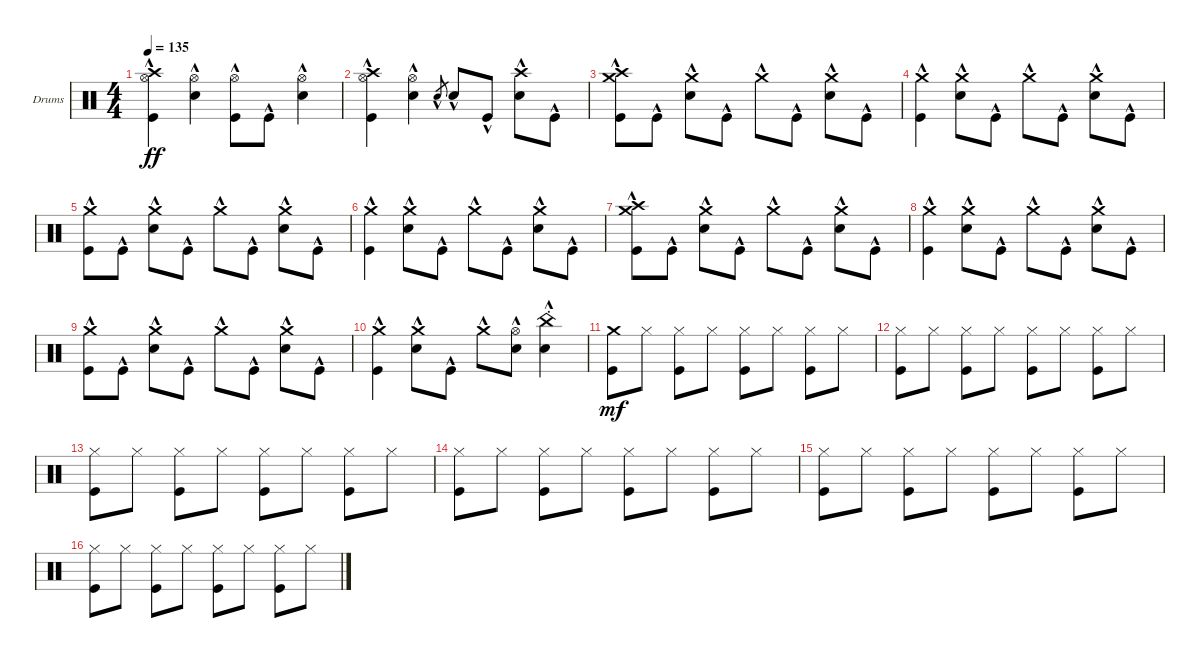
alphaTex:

\defaultSystemsLayout 4
\bracketExtendMode groupsimilarinstruments
\firstSystemTrackNameOrientation horizontal
\otherSystemsTrackNameOrientation horizontal
\track ("Drumkit" "Drums") {instrument percussion}
\staff {score}
\articulation defaults
\ts (4 4)
\tempo 135
\clef neutral
\ks c
("Kick (hit)"{hac} "Crash high (hit)"{hac} "Hi-Hat (open)"{hac}).4{dy ff} ("Snare (hit) 2"{hac} "Hi-Hat (open)"{hac}).4 ("Kick (hit)"{hac} "Hi-Hat (open)"{hac}).8 "Kick (hit)"{hac}.8 ("Snare (hit) 2"{hac} "Hi-Hat (open)"{hac}).4 |
("Kick (hit)"{hac} "Crash high (hit)"{hac} "Hi-Hat (open)"{hac}).4 ("Snare (hit) 2"{hac} "Hi-Hat (open)"{hac}).4 "Snare (hit) 2"{hac}.8{gr} "Snare (hit) 2"{hac}.8 "Kick (hit)"{hac}.8 ("Snare (hit) 2"{hac} "Crash high (hit)"{hac}).8 "Kick (hit)"{hac}.8 |
("Crash medium (hit)"{hac} "Crash high (hit)"{hac} "Kick (hit)"{hac}).8 "Kick (hit)"{hac}.8 ("Crash medium (hit)"{hac} "Snare (hit) 2"{hac}).8 "Kick (hit)"{hac}.8 "Crash medium (hit)"{hac}.8 "Kick (hit)"{hac}.8 ("Crash medium (hit)"{hac} "Snare (hit) 2"{hac}).8 "Kick (hit)"{hac}.8 |
("Crash medium (hit)"{hac} "Kick (hit)"{hac}).4 ("Crash medium (hit)"{hac} "Snare (hit) 2"{hac}).8 "Kick (hit)"{hac}.8 "Crash medium (hit)"{hac}.8 "Kick (hit)"{hac}.8 ("Crash medium (hit)"{hac} "Snare (hit) 2"{hac}).8 "Kick (hit)"{hac}.8 |
("Crash medium (hit)"{hac} "Kick (hit)"{hac}).8 "Kick (hit)"{hac}.8 ("Crash medium (hit)"{hac} "Snare (hit) 2"{hac}).8 "Kick (hit)"{hac}.8 "Crash medium (hit)"{hac}.8 "Kick (hit)"{hac}.8 ("Crash medium (hit)"{hac} "Snare (hit) 2"{hac}).8 "Kick (hit)"{hac}.8 |
("Crash medium (hit)"{hac} "Kick (hit)"{hac}).4 ("Crash medium (hit)"{hac} "Snare (hit) 2"{hac}).8 "Kick (hit)"{hac}.8 "Crash medium (hit)"{hac}.8 "Kick (hit)"{hac}.8 ("Crash medium (hit)"{hac} "Snare (hit) 2"{hac}).8 "Kick (hit)"{hac}.8 |
("Crash medium (hit)"{hac} "Crash high (hit)"{hac} "Kick (hit)"{hac}).8 "Kick (hit)"{hac}.8 ("Crash medium (hit)"{hac} "Snare (hit) 2"{hac}).8 "Kick (hit)"{hac}.8 "Crash medium (hit)"{hac}.8 "Kick (hit)"{hac}.8 ("Crash medium (hit)"{hac} "Snare (hit) 2"{hac}).8 "Kick (hit)"{hac}.8 |
("Crash medium (hit)"{hac} "Kick (hit)"{hac}).4 ("Crash medium (hit)"{hac} "Snare (hit) 2"{hac}).8 "Kick (hit)"{hac}.8 "Crash medium (hit)"{hac}.8 "Kick (hit)"{hac}.8 ("Crash medium (hit)"{hac} "Snare (hit) 2"{hac}).8 "Kick (hit)"{hac}.8 |
("Crash medium (hit)"{hac} "Kick (hit)"{hac}).8 "Kick (hit)"{hac}.8 ("Crash medium (hit)"{hac} "Snare (hit) 2"{hac}).8 "Kick (hit)"{hac}.8 "Crash medium (hit)"{hac}.8 "Kick (hit)"{hac}.8 ("Crash medium (hit)"{hac} "Snare (hit) 2"{hac}).8 "Kick (hit)"{hac}.8 |
("Crash medium (hit)"{hac} "Kick (hit)"{hac}).4 ("Crash medium (hit)"{hac} "Snare (hit) 2"{hac}).8 "Kick (hit)"{hac}.8 "Crash medium (hit)"{hac}.8 ("Snare (hit) 2"{hac} "Hi-Hat (open)"{hac}).8 ("Snare (hit) 2"{hac st} "China (hit)"{hac}).4 |
("Kick (hit)" "Crash medium (hit)").8{dy mf} "Hi-Hat (closed)".8 ("Hi-Hat (closed)" "Kick (hit)").8 "Hi-Hat (closed)".8 ("Hi-Hat (closed)" "Kick (hit)").8 "Hi-Hat (closed)".8 ("Hi-Hat (closed)" "Kick (hit)").8 "Hi-Hat (closed)".8 |
("Hi-Hat (closed)" "Kick (hit)").8 "Hi-Hat (closed)".8 ("Kick (hit)" "Hi-Hat (closed)").8 "Hi-Hat (closed)".8 ("Kick (hit)" "Hi-Hat (closed)").8 "Hi-Hat (closed)".8 ("Kick (hit)" "Hi-Hat (closed)").8 "Hi-Hat (closed)".8 |
("Hi-Hat (closed)" "Kick (hit)").8 "Hi-Hat (closed)".8 ("Kick (hit)" "Hi-Hat (closed)").8 "Hi-Hat (closed)".8 ("Kick (hit)" "Hi-Hat (closed)").8 "Hi-Hat (closed)".8 ("Kick (hit)" "Hi-Hat (closed)").8 "Hi-Hat (closed)".8 |
("Hi-Hat (closed)" "Kick (hit)").8 "Hi-Hat (closed)".8 ("Kick (hit)" "Hi-Hat (closed)").8 "Hi-Hat (closed)".8 ("Kick (hit)" "Hi-Hat (closed)").8 "Hi-Hat (closed)".8 ("Kick (hit)" "Hi-Hat (closed)").8 "Hi-Hat (closed)".8 |
("Hi-Hat (closed)" "Kick (hit)").8 "Hi-Hat (closed)".8 ("Kick (hit)" "Hi-Hat (closed)").8 "Hi-Hat (closed)".8 ("Kick (hit)" "Hi-Hat (closed)").8 "Hi-Hat (closed)".8 ("Kick (hit)" "Hi-Hat (closed)").8 "Hi-Hat (closed)".8 |
("Hi-Hat (closed)" "Kick (hit)").8 "Hi-Hat (closed)".8 ("Kick (hit)" "Hi-Hat (closed)").8 "Hi-Hat (closed)".8 ("Kick (hit)" "Hi-Hat (closed)").8 "Hi-Hat (closed)".8 ("Kick (hit)" "Hi-Hat (closed)").8 "Hi-Hat (closed)".8
